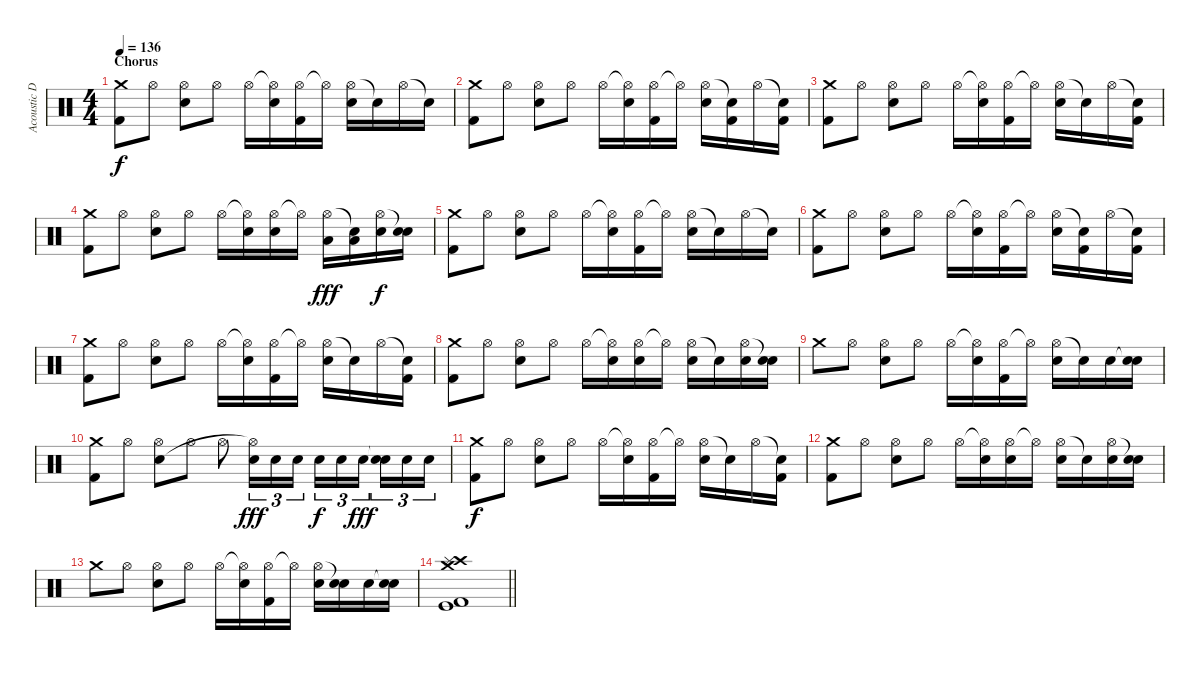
\track ("Acoustic Drums" "Acoustic D") {instrument percussion}
\staff {score}
\articulation defaults
\ts (4 4)
\section ("" "Chorus")
\tempo 136
\clef neutral
\ks c
("Crash medium (hit)" "Kick (hit) 2").8{dy f} "Hi-Hat (open)".8 ("Hi-Hat (open)" "Snare (hit) 2").8 "Hi-Hat (open)".8 "Hi-Hat (open)".16 ("Hi-Hat (open)"{t} "Snare (hit) 2").16 ("Hi-Hat (open)" "Kick (hit) 2").16 "Hi-Hat (open)"{t}.16 ("Hi-Hat (open)" "Snare (hit) 2").16 "Snare (hit)"{t}.16 "Hi-Hat (open)".16 "Snare (hit)"{t}.16 |
("Crash medium (hit)" "Kick (hit) 2").8 "Hi-Hat (open)".8 ("Hi-Hat (open)" "Snare (hit) 2").8 "Hi-Hat (open)".8 "Hi-Hat (open)".16 ("Hi-Hat (open)"{t} "Snare (hit) 2").16 ("Hi-Hat (open)" "Kick (hit) 2").16 "Hi-Hat (open)"{t}.16 ("Hi-Hat (open)" "Snare (hit) 2").16 ("Snare (hit)"{t} "Kick (hit) 2").16 "Hi-Hat (open)".16 ("Snare (hit)"{t} "Kick (hit) 2").16 |
("Crash medium (hit)" "Kick (hit) 2").8 "Hi-Hat (open)".8 ("Hi-Hat (open)" "Snare (hit) 2").8 "Hi-Hat (open)".8 "Hi-Hat (open)".16 ("Hi-Hat (open)"{t} "Snare (hit) 2").16 ("Hi-Hat (open)" "Kick (hit) 2").16 "Hi-Hat (open)"{t}.16 ("Hi-Hat (open)" "Snare (hit) 2").16 "Snare (hit)"{t}.16 "Hi-Hat (open)".16 ("Snare (hit)"{t} "Kick (hit) 2").16 |
("Crash medium (hit)" "Kick (hit) 2").8 "Hi-Hat (open)".8 ("Hi-Hat (open)" "Snare (hit) 2").8 "Hi-Hat (open)".8 "Hi-Hat (open)".16 ("Hi-Hat (open)"{t} "Snare (hit) 2").16 ("Hi-Hat (open)" "Snare (hit) 2").16 "Hi-Hat (open)"{t}.16 ("Hi-Hat (open)" "Low Tom (hit)").16{dy fff} ("Snare (hit)"{t} "Low Tom (hit)").16 ("Hi-Hat (open)" "Snare (hit) 2").16{dy f} ("Snare (hit)"{t} "Snare (hit) 2").16 |
("Crash medium (hit)" "Kick (hit) 2").8 "Hi-Hat (open)".8 ("Hi-Hat (open)" "Snare (hit) 2").8 "Hi-Hat (open)".8 "Hi-Hat (open)".16 ("Hi-Hat (open)"{t} "Snare (hit) 2").16 ("Hi-Hat (open)" "Kick (hit) 2").16 "Hi-Hat (open)"{t}.16 ("Hi-Hat (open)" "Snare (hit) 2").16 "Snare (hit)"{t}.16 "Hi-Hat (open)".16 "Snare (hit)"{t}.16 |
("Crash medium (hit)" "Kick (hit) 2").8 "Hi-Hat (open)".8 ("Hi-Hat (open)" "Snare (hit) 2").8 "Hi-Hat (open)".8 "Hi-Hat (open)".16 ("Hi-Hat (open)"{t} "Snare (hit) 2").16 ("Hi-Hat (open)" "Kick (hit) 2").16 "Hi-Hat (open)"{t}.16 ("Hi-Hat (open)" "Snare (hit) 2").16 ("Snare (hit)"{t} "Kick (hit) 2").16 "Hi-Hat (open)".16 ("Snare (hit)"{t} "Kick (hit) 2").16 |
("Crash medium (hit)" "Kick (hit) 2").8 "Hi-Hat (open)".8 ("Hi-Hat (open)" "Snare (hit) 2").8 "Hi-Hat (open)".8 "Hi-Hat (open)".16 ("Hi-Hat (open)"{t} "Snare (hit) 2").16 ("Hi-Hat (open)" "Kick (hit) 2").16 "Hi-Hat (open)"{t}.16 ("Hi-Hat (open)" "Snare (hit) 2").16 "Snare (hit)"{t}.16 "Hi-Hat (open)".16 ("Snare (hit)"{t} "Kick (hit) 2").16 |
("Crash medium (hit)" "Kick (hit) 2").8 "Hi-Hat (open)".8 ("Hi-Hat (open)" "Snare (hit) 2").8 "Hi-Hat (open)".8 "Hi-Hat (open)".16 ("Hi-Hat (open)"{t} "Snare (hit) 2").16 ("Hi-Hat (open)" "Snare (hit) 2").16 "Hi-Hat (open)"{t}.16 ("Hi-Hat (open)" "Snare (hit) 2").16 "Snare (hit)"{t}.16 ("Hi-Hat (open)" "Snare (hit) 2").16 ("Snare (hit)"{t} "Snare (hit) 2").16 |
"Crash medium (hit)".8 "Hi-Hat (open)".8 ("Hi-Hat (open)" "Snare (hit) 2").8 "Hi-Hat (open)".8 "Hi-Hat (open)".16 ("Hi-Hat (open)"{t} "Snare (hit) 2").16 ("Hi-Hat (open)" "Kick (hit) 2").16 "Hi-Hat (open)"{t}.16 ("Hi-Hat (open)" "Snare (hit) 2").16 "Snare (hit)"{t}.16 "Snare (hit) 2".16 ("Snare (hit)"{t} "Snare (hit) 2").16 |
("Crash medium (hit)" "Kick (hit) 2").8 "Hi-Hat (open)".8 ("Hi-Hat (open)" "Snare (hit) 2").8 "Hi-Hat (open)".8 "Hi-Hat (open)".8 ("Snare (hit) 2" "Hi-Hat (open)"{t}).16{tu (3 2) dy fff} "Snare (hit) 2".16{tu (3 2)} "Snare (hit) 2".16{tu (3 2)} "Snare (hit) 2".16{tu (3 2) dy f} "Snare (hit) 2".16{tu (3 2)} "Snare (hit) 2".16{tu (3 2) dy fff beam splitsecondary} ("Snare (hit)"{t} "Snare (hit) 2").16{tu (3 2)} "Snare (hit) 2".16{tu (3 2)} "Snare (hit) 2".16{tu (3 2)} |
("Crash medium (hit)" "Kick (hit) 2").8{dy f} "Hi-Hat (open)".8 ("Hi-Hat (open)" "Snare (hit) 2").8 "Hi-Hat (open)".8 "Hi-Hat (open)".16 ("Hi-Hat (open)"{t} "Snare (hit) 2").16 ("Hi-Hat (open)" "Kick (hit) 2").16 "Hi-Hat (open)"{t}.16 ("Hi-Hat (open)" "Snare (hit) 2").16 "Snare (hit)"{t}.16 "Hi-Hat (open)".16 ("Snare (hit)"{t} "Kick (hit) 2").16 |
("Crash medium (hit)" "Kick (hit) 2").8 "Hi-Hat (open)".8 ("Hi-Hat (open)" "Snare (hit) 2").8 "Hi-Hat (open)".8 "Hi-Hat (open)".16 ("Hi-Hat (open)"{t} "Snare (hit) 2").16 ("Hi-Hat (open)" "Snare (hit) 2").16 "Hi-Hat (open)"{t}.16 ("Hi-Hat (open)" "Snare (hit) 2").16 "Snare (hit)"{t}.16 ("Hi-Hat (open)" "Snare (hit) 2").16 ("Snare (hit)"{t} "Snare (hit) 2").16 |
"Crash medium (hit)".8 "Hi-Hat (open)".8 ("Hi-Hat (open)" "Snare (hit) 2").8 "Hi-Hat (open)".8 "Hi-Hat (open)".16 ("Hi-Hat (open)"{t} "Snare (hit) 2").16 ("Hi-Hat (open)" "Kick (hit) 2").16 "Hi-Hat (open)"{t}.16 ("Hi-Hat (open)" "Snare (hit) 2").16 ("Snare (hit)"{t} "Snare (hit) 2").16 "Snare (hit) 2".16 ("Snare (hit)"{t} "Snare (hit) 2").16 |
\barLineRight lightlight
("Crash high (hit)" "Splash (hit)" "Crash medium (hit)" "Kick (hit)" "Kick (hit) 2").1
